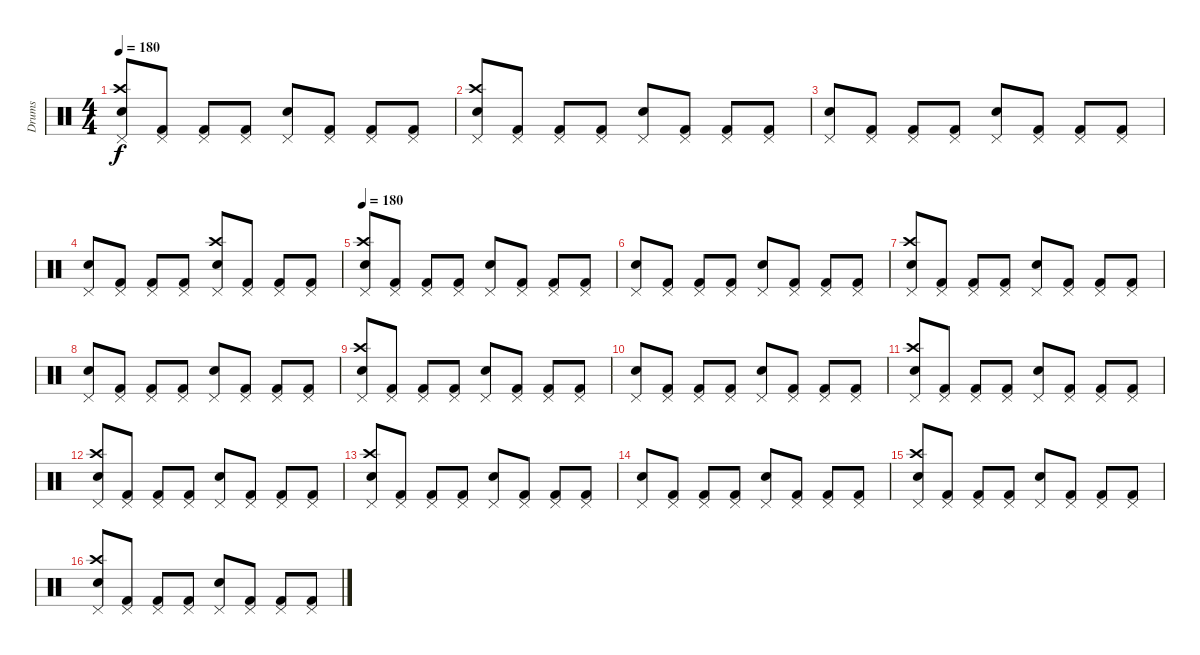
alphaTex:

\track ("Drums" "Drums") {instrument percussion}
\staff {score}
\articulation defaults
\ts (4 4)
\tempo 180
\clef neutral
\ks c
("Pedal Hi-Hat (hit)" "Crash high (hit)" "Snare (hit) 2").8{dy f} ("Pedal Hi-Hat (hit)" "Kick (hit) 2").8 ("Pedal Hi-Hat (hit)" "Kick (hit) 2").8 ("Pedal Hi-Hat (hit)" "Kick (hit) 2").8 ("Pedal Hi-Hat (hit)" "Snare (hit) 2").8 ("Pedal Hi-Hat (hit)" "Kick (hit) 2").8 ("Pedal Hi-Hat (hit)" "Kick (hit) 2").8 ("Pedal Hi-Hat (hit)" "Kick (hit) 2").8 |
("Pedal Hi-Hat (hit)" "Crash high (hit)" "Snare (hit) 2").8 ("Pedal Hi-Hat (hit)" "Kick (hit) 2").8 ("Pedal Hi-Hat (hit)" "Kick (hit) 2").8 ("Pedal Hi-Hat (hit)" "Kick (hit) 2").8 ("Pedal Hi-Hat (hit)" "Snare (hit) 2").8 ("Pedal Hi-Hat (hit)" "Kick (hit) 2").8 ("Pedal Hi-Hat (hit)" "Kick (hit) 2").8 ("Pedal Hi-Hat (hit)" "Kick (hit) 2").8 |
("Pedal Hi-Hat (hit)" "Snare (hit) 2").8 ("Pedal Hi-Hat (hit)" "Kick (hit) 2").8 ("Pedal Hi-Hat (hit)" "Kick (hit) 2").8 ("Pedal Hi-Hat (hit)" "Kick (hit) 2").8 ("Pedal Hi-Hat (hit)" "Snare (hit) 2").8 ("Pedal Hi-Hat (hit)" "Kick (hit) 2").8 ("Pedal Hi-Hat (hit)" "Kick (hit) 2").8 ("Pedal Hi-Hat (hit)" "Kick (hit) 2").8 |
("Pedal Hi-Hat (hit)" "Snare (hit) 2").8 ("Pedal Hi-Hat (hit)" "Kick (hit) 2").8 ("Pedal Hi-Hat (hit)" "Kick (hit) 2").8 ("Pedal Hi-Hat (hit)" "Kick (hit) 2").8 ("Pedal Hi-Hat (hit)" "Crash high (hit)" "Snare (hit) 2").8 ("Pedal Hi-Hat (hit)" "Kick (hit) 2").8 ("Pedal Hi-Hat (hit)" "Kick (hit) 2").8 ("Pedal Hi-Hat (hit)" "Kick (hit) 2").8 |
\tempo 180
("Pedal Hi-Hat (hit)" "Crash high (hit)" "Snare (hit) 2").8 ("Pedal Hi-Hat (hit)" "Kick (hit) 2").8 ("Pedal Hi-Hat (hit)" "Kick (hit) 2").8 ("Pedal Hi-Hat (hit)" "Kick (hit) 2").8 ("Pedal Hi-Hat (hit)" "Snare (hit) 2").8 ("Pedal Hi-Hat (hit)" "Kick (hit) 2").8 ("Pedal Hi-Hat (hit)" "Kick (hit) 2").8 ("Pedal Hi-Hat (hit)" "Kick (hit) 2").8 |
("Pedal Hi-Hat (hit)" "Snare (hit) 2").8 ("Pedal Hi-Hat (hit)" "Kick (hit) 2").8 ("Pedal Hi-Hat (hit)" "Kick (hit) 2").8 ("Pedal Hi-Hat (hit)" "Kick (hit) 2").8 ("Pedal Hi-Hat (hit)" "Snare (hit) 2").8 ("Pedal Hi-Hat (hit)" "Kick (hit) 2").8 ("Pedal Hi-Hat (hit)" "Kick (hit) 2").8 ("Pedal Hi-Hat (hit)" "Kick (hit) 2").8 |
("Pedal Hi-Hat (hit)" "Crash high (hit)" "Snare (hit) 2").8 ("Pedal Hi-Hat (hit)" "Kick (hit) 2").8 ("Pedal Hi-Hat (hit)" "Kick (hit) 2").8 ("Pedal Hi-Hat (hit)" "Kick (hit) 2").8 ("Pedal Hi-Hat (hit)" "Snare (hit) 2").8 ("Pedal Hi-Hat (hit)" "Kick (hit) 2").8 ("Pedal Hi-Hat (hit)" "Kick (hit) 2").8 ("Pedal Hi-Hat (hit)" "Kick (hit) 2").8 |
("Pedal Hi-Hat (hit)" "Snare (hit) 2").8 ("Pedal Hi-Hat (hit)" "Kick (hit) 2").8 ("Pedal Hi-Hat (hit)" "Kick (hit) 2").8 ("Pedal Hi-Hat (hit)" "Kick (hit) 2").8 ("Pedal Hi-Hat (hit)" "Snare (hit) 2").8 ("Pedal Hi-Hat (hit)" "Kick (hit) 2").8 ("Pedal Hi-Hat (hit)" "Kick (hit) 2").8 ("Pedal Hi-Hat (hit)" "Kick (hit) 2").8 |
("Pedal Hi-Hat (hit)" "Crash high (hit)" "Snare (hit) 2").8 ("Pedal Hi-Hat (hit)" "Kick (hit) 2").8 ("Pedal Hi-Hat (hit)" "Kick (hit) 2").8 ("Pedal Hi-Hat (hit)" "Kick (hit) 2").8 ("Pedal Hi-Hat (hit)" "Snare (hit) 2").8 ("Pedal Hi-Hat (hit)" "Kick (hit) 2").8 ("Pedal Hi-Hat (hit)" "Kick (hit) 2").8 ("Pedal Hi-Hat (hit)" "Kick (hit) 2").8 |
("Pedal Hi-Hat (hit)" "Snare (hit) 2").8 ("Pedal Hi-Hat (hit)" "Kick (hit) 2").8 ("Pedal Hi-Hat (hit)" "Kick (hit) 2").8 ("Pedal Hi-Hat (hit)" "Kick (hit) 2").8 ("Pedal Hi-Hat (hit)" "Snare (hit) 2").8 ("Pedal Hi-Hat (hit)" "Kick (hit) 2").8 ("Pedal Hi-Hat (hit)" "Kick (hit) 2").8 ("Pedal Hi-Hat (hit)" "Kick (hit) 2").8 |
("Pedal Hi-Hat (hit)" "Crash high (hit)" "Snare (hit) 2").8 ("Pedal Hi-Hat (hit)" "Kick (hit) 2").8 ("Pedal Hi-Hat (hit)" "Kick (hit) 2").8 ("Pedal Hi-Hat (hit)" "Kick (hit) 2").8 ("Pedal Hi-Hat (hit)" "Snare (hit) 2").8 ("Pedal Hi-Hat (hit)" "Kick (hit) 2").8 ("Pedal Hi-Hat (hit)" "Kick (hit) 2").8 ("Pedal Hi-Hat (hit)" "Kick (hit) 2").8 |
("Pedal Hi-Hat (hit)" "Crash high (hit)" "Snare (hit) 2").8 ("Pedal Hi-Hat (hit)" "Kick (hit) 2").8 ("Pedal Hi-Hat (hit)" "Kick (hit) 2").8 ("Pedal Hi-Hat (hit)" "Kick (hit) 2").8 ("Pedal Hi-Hat (hit)" "Snare (hit) 2").8 ("Pedal Hi-Hat (hit)" "Kick (hit) 2").8 ("Pedal Hi-Hat (hit)" "Kick (hit) 2").8 ("Pedal Hi-Hat (hit)" "Kick (hit) 2").8 |
("Pedal Hi-Hat (hit)" "Crash high (hit)" "Snare (hit) 2").8 ("Pedal Hi-Hat (hit)" "Kick (hit) 2").8 ("Pedal Hi-Hat (hit)" "Kick (hit) 2").8 ("Pedal Hi-Hat (hit)" "Kick (hit) 2").8 ("Pedal Hi-Hat (hit)" "Snare (hit) 2").8 ("Pedal Hi-Hat (hit)" "Kick (hit) 2").8 ("Pedal Hi-Hat (hit)" "Kick (hit) 2").8 ("Pedal Hi-Hat (hit)" "Kick (hit) 2").8 |
("Pedal Hi-Hat (hit)" "Snare (hit) 2").8 ("Pedal Hi-Hat (hit)" "Kick (hit) 2").8 ("Pedal Hi-Hat (hit)" "Kick (hit) 2").8 ("Pedal Hi-Hat (hit)" "Kick (hit) 2").8 ("Pedal Hi-Hat (hit)" "Snare (hit) 2").8 ("Pedal Hi-Hat (hit)" "Kick (hit) 2").8 ("Pedal Hi-Hat (hit)" "Kick (hit) 2").8 ("Pedal Hi-Hat (hit)" "Kick (hit) 2").8 |
("Pedal Hi-Hat (hit)" "Crash high (hit)" "Snare (hit) 2").8 ("Pedal Hi-Hat (hit)" "Kick (hit) 2").8 ("Pedal Hi-Hat (hit)" "Kick (hit) 2").8 ("Pedal Hi-Hat (hit)" "Kick (hit) 2").8 ("Pedal Hi-Hat (hit)" "Snare (hit) 2").8 ("Pedal Hi-Hat (hit)" "Kick (hit) 2").8 ("Pedal Hi-Hat (hit)" "Kick (hit) 2").8 ("Pedal Hi-Hat (hit)" "Kick (hit) 2").8 |
("Pedal Hi-Hat (hit)" "Crash high (hit)" "Snare (hit) 2").8 ("Pedal Hi-Hat (hit)" "Kick (hit) 2").8 ("Pedal Hi-Hat (hit)" "Kick (hit) 2").8 ("Pedal Hi-Hat (hit)" "Kick (hit) 2").8 ("Pedal Hi-Hat (hit)" "Snare (hit) 2").8 ("Pedal Hi-Hat (hit)" "Kick (hit) 2").8 ("Pedal Hi-Hat (hit)" "Kick (hit) 2").8 ("Pedal Hi-Hat (hit)" "Kick (hit) 2").8
